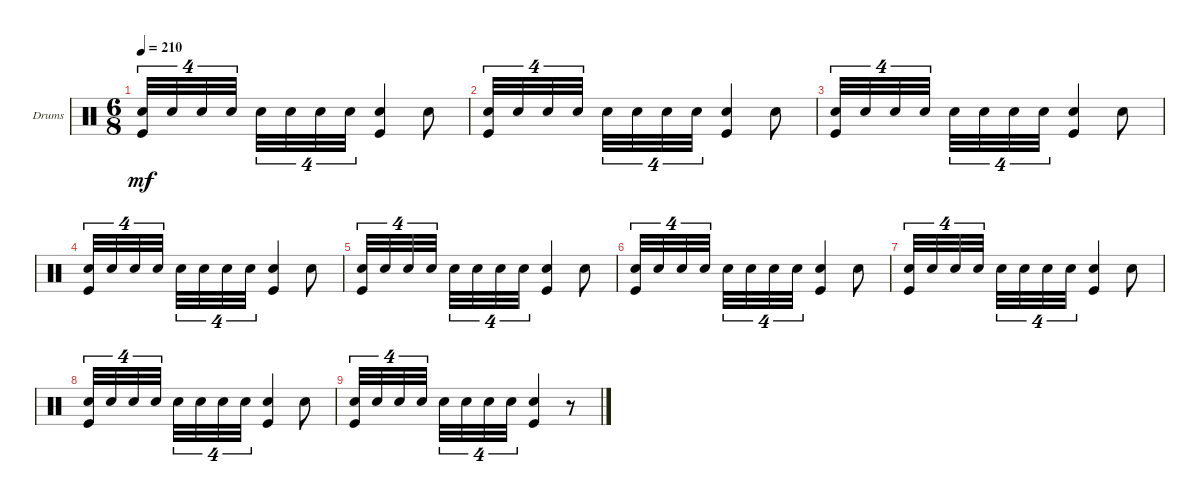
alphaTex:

\defaultSystemsLayout 4
\bracketExtendMode nobrackets
\firstSystemTrackNameOrientation horizontal
\otherSystemsTrackNameOrientation horizontal
\track ("Drumkit" "Drums") {instrument percussion}
\staff {score}
\articulation defaults
\ts (6 8)
\tempo 210
\clef neutral
\scale
0.333333
\ks c
("Kick (hit)" "Snare (hit) 2").32{tu (4 6) dy mf} "Snare (hit) 2".32{tu (4 6)} "Snare (hit) 2".32{tu (4 6)} "Snare (hit) 2".32{tu (4 6)} "Snare (hit) 2".32{tu (4 6)} "Snare (hit) 2".32{tu (4 6)} "Snare (hit) 2".32{tu (4 6)} "Snare (hit) 2".32{tu (4 6)} ("Kick (hit)" "Snare (hit) 2").4 "Snare (hit) 2".8 |
\scale
0.333333 ("Kick (hit)" "Snare (hit) 2").32{tu (4 6)} "Snare (hit) 2".32{tu (4 6)} "Snare (hit) 2".32{tu (4 6)} "Snare (hit) 2".32{tu (4 6)} "Snare (hit) 2".32{tu (4 6)} "Snare (hit) 2".32{tu (4 6)} "Snare (hit) 2".32{tu (4 6)} "Snare (hit) 2".32{tu (4 6)} ("Kick (hit)" "Snare (hit) 2").4 "Snare (hit) 2".8 |
\scale
0.333333 ("Kick (hit)" "Snare (hit) 2").32{tu (4 6)} "Snare (hit) 2".32{tu (4 6)} "Snare (hit) 2".32{tu (4 6)} "Snare (hit) 2".32{tu (4 6)} "Snare (hit) 2".32{tu (4 6)} "Snare (hit) 2".32{tu (4 6)} "Snare (hit) 2".32{tu (4 6)} "Snare (hit) 2".32{tu (4 6)} ("Kick (hit)" "Snare (hit) 2").4 "Snare (hit) 2".8 |
\scale
0.333333 ("Kick (hit)" "Snare (hit) 2").32{tu (4 6)} "Snare (hit) 2".32{tu (4 6)} "Snare (hit) 2".32{tu (4 6)} "Snare (hit) 2".32{tu (4 6)} "Snare (hit) 2".32{tu (4 6)} "Snare (hit) 2".32{tu (4 6)} "Snare (hit) 2".32{tu (4 6)} "Snare (hit) 2".32{tu (4 6)} ("Kick (hit)" "Snare (hit) 2").4 "Snare (hit) 2".8 |
\scale
0.333333 ("Kick (hit)" "Snare (hit) 2").32{tu (4 6)} "Snare (hit) 2".32{tu (4 6)} "Snare (hit) 2".32{tu (4 6)} "Snare (hit) 2".32{tu (4 6)} "Snare (hit) 2".32{tu (4 6)} "Snare (hit) 2".32{tu (4 6)} "Snare (hit) 2".32{tu (4 6)} "Snare (hit) 2".32{tu (4 6)} ("Kick (hit)" "Snare (hit) 2").4 "Snare (hit) 2".8 |
\scale
0.333333 ("Kick (hit)" "Snare (hit) 2").32{tu (4 6)} "Snare (hit) 2".32{tu (4 6)} "Snare (hit) 2".32{tu (4 6)} "Snare (hit) 2".32{tu (4 6)} "Snare (hit) 2".32{tu (4 6)} "Snare (hit) 2".32{tu (4 6)} "Snare (hit) 2".32{tu (4 6)} "Snare (hit) 2".32{tu (4 6)} ("Kick (hit)" "Snare (hit) 2").4 "Snare (hit) 2".8 |
("Kick (hit)" "Snare (hit) 2").32{tu (4 6)} "Snare (hit) 2".32{tu (4 6)} "Snare (hit) 2".32{tu (4 6)} "Snare (hit) 2".32{tu (4 6)} "Snare (hit) 2".32{tu (4 6)} "Snare (hit) 2".32{tu (4 6)} "Snare (hit) 2".32{tu (4 6)} "Snare (hit) 2".32{tu (4 6)} ("Kick (hit)" "Snare (hit) 2").4 "Snare (hit) 2".8 |
("Kick (hit)" "Snare (hit) 2").32{tu (4 6)} "Snare (hit) 2".32{tu (4 6)} "Snare (hit) 2".32{tu (4 6)} "Snare (hit) 2".32{tu (4 6)} "Snare (hit) 2".32{tu (4 6)} "Snare (hit) 2".32{tu (4 6)} "Snare (hit) 2".32{tu (4 6)} "Snare (hit) 2".32{tu (4 6)} ("Kick (hit)" "Snare (hit) 2").4 "Snare (hit) 2".8 |
("Kick (hit)" "Snare (hit) 2").32{tu (4 6)} "Snare (hit) 2".32{tu (4 6)} "Snare (hit) 2".32{tu (4 6)} "Snare (hit) 2".32{tu (4 6)} "Snare (hit) 2".32{tu (4 6)} "Snare (hit) 2".32{tu (4 6)} "Snare (hit) 2".32{tu (4 6)} "Snare (hit) 2".32{tu (4 6)} ("Kick (hit)" "Snare (hit) 2").4 r.8
